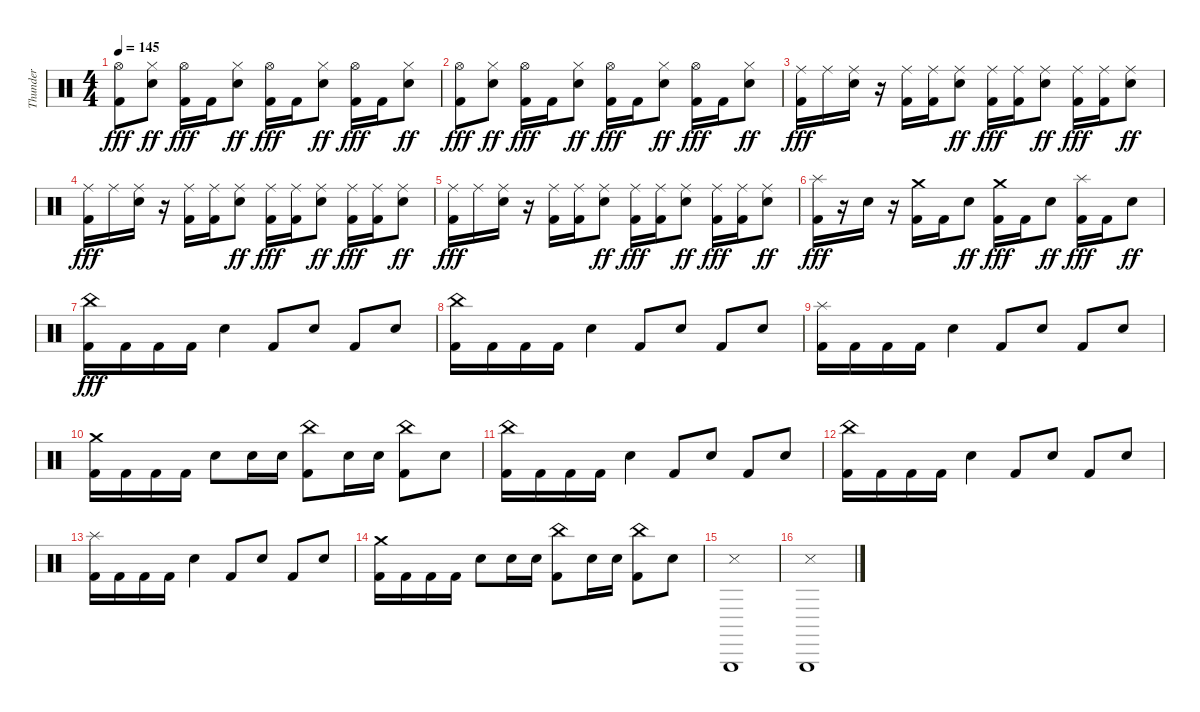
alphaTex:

\track ("Thunder" "Thunder") {instrument percussion}
\staff {score}
\articulation defaults
\ts (4 4)
\tempo 145
\clef neutral
\ks c
("Hi-Hat (open)" "Kick (hit) 2").8{dy fff} ("Hi-Hat (closed)" "Electric Snare (hit)").8{dy ff} ("Hi-Hat (open)" "Kick (hit) 2").16{dy fff} "Kick (hit) 2".16 ("Hi-Hat (closed)" "Electric Snare (hit)").8{dy ff} ("Hi-Hat (open)" "Kick (hit) 2").16{dy fff} "Kick (hit) 2".16 ("Hi-Hat (closed)" "Electric Snare (hit)").8{dy ff} ("Hi-Hat (open)" "Kick (hit) 2").16{dy fff} "Kick (hit) 2".16 ("Hi-Hat (closed)" "Electric Snare (hit)").8{dy ff} |
("Hi-Hat (open)" "Kick (hit) 2").8{dy fff} ("Hi-Hat (closed)" "Electric Snare (hit)").8{dy ff} ("Hi-Hat (open)" "Kick (hit) 2").16{dy fff} "Kick (hit) 2".16 ("Hi-Hat (closed)" "Electric Snare (hit)").8{dy ff} ("Hi-Hat (open)" "Kick (hit) 2").16{dy fff} "Kick (hit) 2".16 ("Hi-Hat (closed)" "Electric Snare (hit)").8{dy ff} ("Hi-Hat (open)" "Kick (hit) 2").16{dy fff} "Kick (hit) 2".16 ("Hi-Hat (closed)" "Electric Snare (hit)").8{dy ff} |
("Ride (middle)" "Kick (hit) 2").16{dy fff} "Ride (middle)".16 ("Ride (middle)" "Electric Snare (hit)").16 r.16 ("Ride (middle)" "Kick (hit) 2").16 ("Ride (middle)" "Kick (hit) 2").16 ("Ride (middle)" "Electric Snare (hit)").8{dy ff} ("Ride (middle)" "Kick (hit) 2").16{dy fff} ("Ride (middle)" "Kick (hit) 2").16 ("Ride (middle)" "Electric Snare (hit)").8{dy ff} ("Ride (middle)" "Kick (hit) 2").16{dy fff} ("Ride (middle)" "Kick (hit) 2").16 ("Ride (middle)" "Electric Snare (hit)").8{dy ff} |
("Ride (middle)" "Kick (hit) 2").16{dy fff} "Ride (middle)".16 ("Ride (middle)" "Electric Snare (hit)").16 r.16 ("Ride (middle)" "Kick (hit) 2").16 ("Ride (middle)" "Kick (hit) 2").16 ("Ride (middle)" "Electric Snare (hit)").8{dy ff} ("Ride (middle)" "Kick (hit) 2").16{dy fff} ("Ride (middle)" "Kick (hit) 2").16 ("Ride (middle)" "Electric Snare (hit)").8{dy ff} ("Ride (middle)" "Kick (hit) 2").16{dy fff} ("Ride (middle)" "Kick (hit) 2").16 ("Ride (middle)" "Electric Snare (hit)").8{dy ff} |
("Ride (middle)" "Kick (hit) 2").16{dy fff} "Ride (middle)".16 ("Ride (middle)" "Electric Snare (hit)").16 r.16 ("Ride (middle)" "Kick (hit) 2").16 ("Ride (middle)" "Kick (hit) 2").16 ("Ride (middle)" "Electric Snare (hit)").8{dy ff} ("Ride (middle)" "Kick (hit) 2").16{dy fff} ("Ride (middle)" "Kick (hit) 2").16 ("Ride (middle)" "Electric Snare (hit)").8{dy ff} ("Ride (middle)" "Kick (hit) 2").16{dy fff} ("Ride (middle)" "Kick (hit) 2").16 ("Ride (middle)" "Electric Snare (hit)").8{dy ff} |
("Splash (hit)" "Kick (hit) 2").16{dy fff} r.16 "Electric Snare (hit)".16 r.16 ("Crash medium (hit)" "Kick (hit) 2").16 "Kick (hit) 2".16 "Electric Snare (hit)".8{dy ff} ("Crash medium (hit)" "Kick (hit) 2").16{dy fff} "Kick (hit) 2".16 "Electric Snare (hit)".8{dy ff} ("Splash (hit)" "Kick (hit) 2").16{dy fff} "Kick (hit) 2".16 "Electric Snare (hit)".8{dy ff} |
("China (hit)" "Kick (hit) 2").16{dy fff} "Kick (hit) 2".16 "Kick (hit) 2".16 "Kick (hit) 2".16 "Electric Snare (hit)".4 "Kick (hit) 2".8 "Electric Snare (hit)".8 "Kick (hit) 2".8 "Electric Snare (hit)".8 |
("China (hit)" "Kick (hit) 2").16 "Kick (hit) 2".16 "Kick (hit) 2".16 "Kick (hit) 2".16 "Electric Snare (hit)".4 "Kick (hit) 2".8 "Electric Snare (hit)".8 "Kick (hit) 2".8 "Electric Snare (hit)".8 |
("Splash (hit)" "Kick (hit) 2").16 "Kick (hit) 2".16 "Kick (hit) 2".16 "Kick (hit) 2".16 "Electric Snare (hit)".4 "Kick (hit) 2".8 "Electric Snare (hit)".8 "Kick (hit) 2".8 "Electric Snare (hit)".8 |
("Crash medium (hit)" "Kick (hit) 2").16 "Kick (hit) 2".16 "Kick (hit) 2".16 "Kick (hit) 2".16 "Electric Snare (hit)".8 "Electric Snare (hit)".16 "Electric Snare (hit)".16 ("China (hit)" "Kick (hit) 2").8 "Electric Snare (hit)".16 "Electric Snare (hit)".16 ("China (hit)" "Kick (hit) 2").8 "Electric Snare (hit)".8 |
("China (hit)" "Kick (hit) 2").16 "Kick (hit) 2".16 "Kick (hit) 2".16 "Kick (hit) 2".16 "Electric Snare (hit)".4 "Kick (hit) 2".8 "Electric Snare (hit)".8 "Kick (hit) 2".8 "Electric Snare (hit)".8 |
("China (hit)" "Kick (hit) 2").16 "Kick (hit) 2".16 "Kick (hit) 2".16 "Kick (hit) 2".16 "Electric Snare (hit)".4 "Kick (hit) 2".8 "Electric Snare (hit)".8 "Kick (hit) 2".8 "Electric Snare (hit)".8 |
("Splash (hit)" "Kick (hit) 2").16 "Kick (hit) 2".16 "Kick (hit) 2".16 "Kick (hit) 2".16 "Electric Snare (hit)".4 "Kick (hit) 2".8 "Electric Snare (hit)".8 "Kick (hit) 2".8 "Electric Snare (hit)".8 |
("Crash medium (hit)" "Kick (hit) 2").16 "Kick (hit) 2".16 "Kick (hit) 2".16 "Kick (hit) 2".16 "Electric Snare (hit)".8 "Electric Snare (hit)".16 "Electric Snare (hit)".16 ("China (hit)" "Kick (hit) 2").8 "Electric Snare (hit)".16 "Electric Snare (hit)".16 ("China (hit)" "Kick (hit) 2").8 "Electric Snare (hit)".8 |
("Triangle (hit)" "Snare (side stick) 3").1 |
("Triangle (hit)" "Snare (side stick) 3").1
